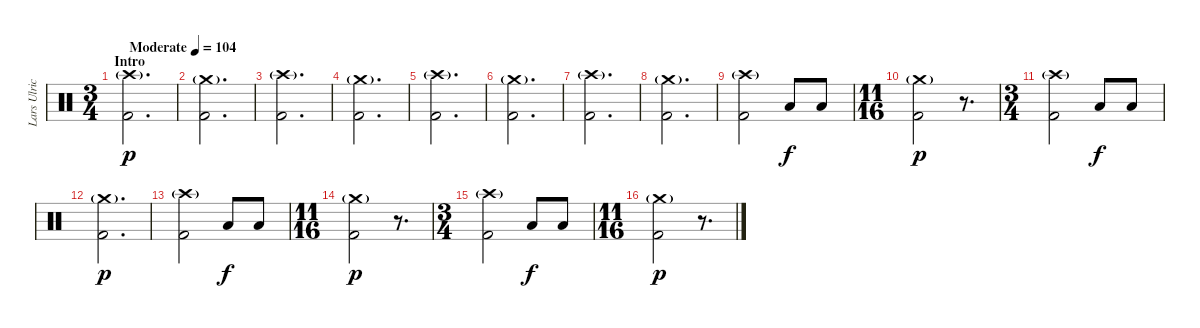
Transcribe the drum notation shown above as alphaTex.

\track ("Lars Ulrich (Drums)" "Lars Ulric") {instrument percussion}
\staff {score}
\articulation defaults
\ts (3 4)
\section ("" "Intro")
\tempo (104 "Moderate")
\clef neutral
\ks c
("Crash high (hit)"{g} "Kick (hit) 2").2{d dy p volume 8} |
("Crash medium (hit)"{g} "Kick (hit) 2").2{d} |
("Crash high (hit)"{g} "Kick (hit) 2").2{d} |
("Crash medium (hit)"{g} "Kick (hit) 2").2{d} |
("Crash high (hit)"{g} "Kick (hit) 2").2{d} |
("Crash medium (hit)"{g} "Kick (hit) 2").2{d} |
("Crash high (hit)"{g} "Kick (hit) 2").2{d} |
("Crash medium (hit)"{g} "Kick (hit) 2").2{d} |
("Crash high (hit)"{g} "Kick (hit) 2").2 "Low Tom (hit)".8{dy f} "Low Tom (hit)".8 |
\ts (11 16)
("Crash medium (hit)"{g} "Kick (hit) 2").2{dy p} r.8{d} |
\ts (3 4)
("Crash high (hit)"{g} "Kick (hit) 2").2 "Low Tom (hit)".8{dy f} "Low Tom (hit)".8 |
("Crash medium (hit)"{g} "Kick (hit) 2").2{d dy p} |
("Crash high (hit)"{g} "Kick (hit) 2").2 "Low Tom (hit)".8{dy f} "Low Tom (hit)".8 |
\ts (11 16)
("Crash medium (hit)"{g} "Kick (hit) 2").2{dy p} r.8{d} |
\ts (3 4)
("Crash high (hit)"{g} "Kick (hit) 2").2 "Low Tom (hit)".8{dy f} "Low Tom (hit)".8 |
\ts (11 16)
("Crash medium (hit)"{g} "Kick (hit) 2").2{dy p} r.8{d}
